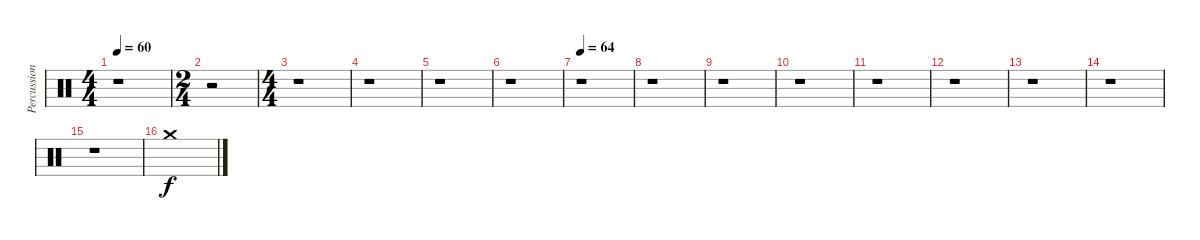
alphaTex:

\track ("Percussions         " "Percussion") {instrument percussion}
\staff {score}
\articulation defaults
\ts (4 4)
\tempo 60
\clef neutral
\ks c
r.1{dy f} |
\ts (2 4)
r.2 |
\ts (4 4)
r.1 |
r.1 |
r.1 |
r.1 |
\tempo 64
r.1 |
r.1 |
r.1 |
r.1 |
r.1 |
r.1 |
r.1 |
r.1 |
r.1{volume 16} |
"Crash medium (hit)".1{volume 16}
